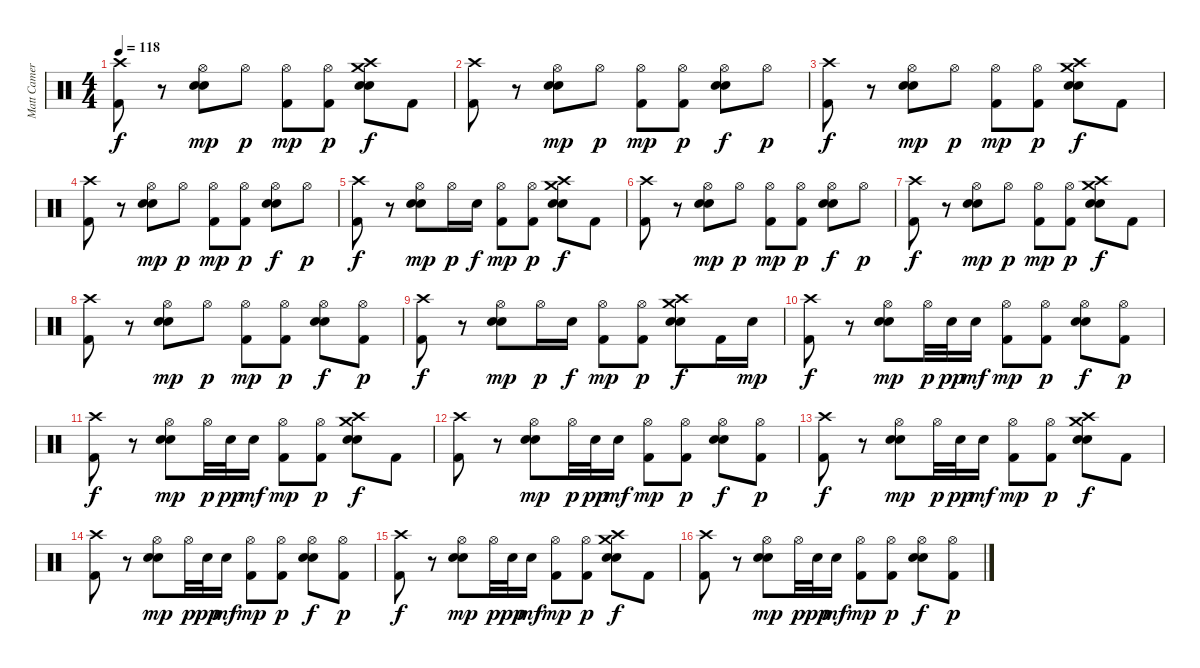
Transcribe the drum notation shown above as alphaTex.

\track ("Matt Cameron" "Matt Camer") {instrument percussion}
\staff
\articulation defaults
\ts (4 4)
\tempo 118
\clef neutral
\ks c
("Crash high (hit)" "Kick (hit) 2").8{dy f} r.8 ("Hi-Hat (open)" "Electric Snare (hit)" "Snare (hit) 2").8{dy mp} "Hi-Hat (open)".8{dy p} ("Hi-Hat (open)" "Kick (hit) 2").8{dy mp} ("Hi-Hat (open)" "Kick (hit) 2").8{dy p} ("Crash medium (hit)" "Crash high (hit)" "Electric Snare (hit)" "Snare (hit) 2").8{dy f} "Kick (hit) 2".8 |
("Crash high (hit)" "Kick (hit) 2").8 r.8 ("Hi-Hat (open)" "Electric Snare (hit)" "Snare (hit) 2").8{dy mp} "Hi-Hat (open)".8{dy p} ("Hi-Hat (open)" "Kick (hit) 2").8{dy mp} ("Hi-Hat (open)" "Kick (hit) 2").8{dy p} ("Hi-Hat (open)" "Electric Snare (hit)" "Snare (hit) 2").8{dy f} "Hi-Hat (open)".8{dy p} |
("Crash high (hit)" "Kick (hit) 2").8{dy f} r.8 ("Hi-Hat (open)" "Electric Snare (hit)" "Snare (hit) 2").8{dy mp} "Hi-Hat (open)".8{dy p} ("Hi-Hat (open)" "Kick (hit) 2").8{dy mp} ("Hi-Hat (open)" "Kick (hit) 2").8{dy p} ("Crash medium (hit)" "Crash high (hit)" "Electric Snare (hit)" "Snare (hit) 2").8{dy f} "Kick (hit) 2".8 |
("Crash high (hit)" "Kick (hit) 2").8 r.8 ("Hi-Hat (open)" "Electric Snare (hit)" "Snare (hit) 2").8{dy mp} "Hi-Hat (open)".8{dy p} ("Hi-Hat (open)" "Kick (hit) 2").8{dy mp} ("Hi-Hat (open)" "Kick (hit) 2").8{dy p} ("Hi-Hat (open)" "Electric Snare (hit)" "Snare (hit) 2").8{dy f} "Hi-Hat (open)".8{dy p} |
("Crash high (hit)" "Kick (hit) 2").8{dy f} r.8 ("Hi-Hat (open)" "Electric Snare (hit)" "Snare (hit) 2").8{dy mp} "Hi-Hat (open)".16{dy p} "Electric Snare (hit)".16{dy f} ("Hi-Hat (open)" "Kick (hit) 2").8{dy mp} ("Hi-Hat (open)" "Kick (hit) 2").8{dy p} ("Crash medium (hit)" "Crash high (hit)" "Electric Snare (hit)" "Snare (hit) 2").8{dy f} "Kick (hit) 2".8 |
("Crash high (hit)" "Kick (hit) 2").8 r.8 ("Hi-Hat (open)" "Electric Snare (hit)" "Snare (hit) 2").8{dy mp} "Hi-Hat (open)".8{dy p} ("Hi-Hat (open)" "Kick (hit) 2").8{dy mp} ("Hi-Hat (open)" "Kick (hit) 2").8{dy p} ("Hi-Hat (open)" "Electric Snare (hit)" "Snare (hit) 2").8{dy f} "Hi-Hat (open)".8{dy p} |
("Crash high (hit)" "Kick (hit) 2").8{dy f} r.8 ("Hi-Hat (open)" "Electric Snare (hit)" "Snare (hit) 2").8{dy mp} "Hi-Hat (open)".8{dy p} ("Hi-Hat (open)" "Kick (hit) 2").8{dy mp} ("Hi-Hat (open)" "Kick (hit) 2").8{dy p} ("Crash medium (hit)" "Crash high (hit)" "Electric Snare (hit)" "Snare (hit) 2").8{dy f} "Kick (hit) 2".8 |
("Crash high (hit)" "Kick (hit) 2").8 r.8 ("Hi-Hat (open)" "Electric Snare (hit)" "Snare (hit) 2").8{dy mp} "Hi-Hat (open)".8{dy p} ("Hi-Hat (open)" "Kick (hit) 2").8{dy mp} ("Hi-Hat (open)" "Kick (hit) 2").8{dy p} ("Hi-Hat (open)" "Electric Snare (hit)" "Snare (hit) 2").8{dy f} ("Hi-Hat (open)" "Kick (hit) 2").8{dy p} |
("Crash high (hit)" "Kick (hit) 2").8{dy f} r.8 ("Hi-Hat (open)" "Electric Snare (hit)" "Snare (hit) 2").8{dy mp} "Hi-Hat (open)".16{dy p} "Electric Snare (hit)".16{dy f} ("Hi-Hat (open)" "Kick (hit) 2").8{dy mp} ("Hi-Hat (open)" "Kick (hit) 2").8{dy p} ("Crash medium (hit)" "Crash high (hit)" "Electric Snare (hit)" "Snare (hit) 2").8{dy f} "Kick (hit) 2".16 "Snare (hit) 2".16{dy mp} |
("Crash high (hit)" "Kick (hit) 2").8{dy f} r.8 ("Hi-Hat (open)" "Electric Snare (hit)" "Snare (hit) 2").8{dy mp} "Hi-Hat (open)".32{dy p} "Snare (hit) 2".32{dy pp} "Snare (hit) 2".16{dy mf} ("Hi-Hat (open)" "Kick (hit) 2").8{dy mp} ("Hi-Hat (open)" "Kick (hit) 2").8{dy p} ("Hi-Hat (open)" "Electric Snare (hit)" "Snare (hit) 2").8{dy f} ("Hi-Hat (open)" "Kick (hit) 2").8{dy p} |
("Crash high (hit)" "Kick (hit) 2").8{dy f} r.8 ("Hi-Hat (open)" "Electric Snare (hit)" "Snare (hit) 2").8{dy mp} "Hi-Hat (open)".32{dy p} "Snare (hit) 2".32{dy pp} "Snare (hit) 2".16{dy mf} ("Hi-Hat (open)" "Kick (hit) 2").8{dy mp} ("Hi-Hat (open)" "Kick (hit) 2").8{dy p} ("Crash medium (hit)" "Crash high (hit)" "Electric Snare (hit)" "Snare (hit) 2").8{dy f} "Kick (hit) 2".8 |
("Crash high (hit)" "Kick (hit) 2").8 r.8 ("Hi-Hat (open)" "Electric Snare (hit)" "Snare (hit) 2").8{dy mp} "Hi-Hat (open)".32{dy p} "Snare (hit) 2".32{dy pp} "Snare (hit) 2".16{dy mf} ("Hi-Hat (open)" "Kick (hit) 2").8{dy mp} ("Hi-Hat (open)" "Kick (hit) 2").8{dy p} ("Hi-Hat (open)" "Electric Snare (hit)" "Snare (hit) 2").8{dy f} ("Hi-Hat (open)" "Kick (hit) 2").8{dy p} |
("Crash high (hit)" "Kick (hit) 2").8{dy f} r.8 ("Hi-Hat (open)" "Electric Snare (hit)" "Snare (hit) 2").8{dy mp} "Hi-Hat (open)".32{dy p} "Snare (hit) 2".32{dy pp} "Snare (hit) 2".16{dy mf} ("Hi-Hat (open)" "Kick (hit) 2").8{dy mp} ("Hi-Hat (open)" "Kick (hit) 2").8{dy p} ("Crash medium (hit)" "Crash high (hit)" "Electric Snare (hit)" "Snare (hit) 2").8{dy f} "Kick (hit) 2".8 |
("Crash high (hit)" "Kick (hit) 2").8 r.8 ("Hi-Hat (open)" "Electric Snare (hit)" "Snare (hit) 2").8{dy mp} "Hi-Hat (open)".32{dy p} "Snare (hit) 2".32{dy pp} "Snare (hit) 2".16{dy mf} ("Hi-Hat (open)" "Kick (hit) 2").8{dy mp} ("Hi-Hat (open)" "Kick (hit) 2").8{dy p} ("Hi-Hat (open)" "Electric Snare (hit)" "Snare (hit) 2").8{dy f} ("Hi-Hat (open)" "Kick (hit) 2").8{dy p} |
("Crash high (hit)" "Kick (hit) 2").8{dy f} r.8 ("Hi-Hat (open)" "Electric Snare (hit)" "Snare (hit) 2").8{dy mp} "Hi-Hat (open)".32{dy p} "Snare (hit) 2".32{dy pp} "Snare (hit) 2".16{dy mf} ("Hi-Hat (open)" "Kick (hit) 2").8{dy mp} ("Hi-Hat (open)" "Kick (hit) 2").8{dy p} ("Crash medium (hit)" "Crash high (hit)" "Electric Snare (hit)" "Snare (hit) 2").8{dy f} "Kick (hit) 2".8 |
("Crash high (hit)" "Kick (hit) 2").8 r.8 ("Hi-Hat (open)" "Electric Snare (hit)" "Snare (hit) 2").8{dy mp} "Hi-Hat (open)".32{dy p} "Snare (hit) 2".32{dy pp} "Snare (hit) 2".16{dy mf} ("Hi-Hat (open)" "Kick (hit) 2").8{dy mp} ("Hi-Hat (open)" "Kick (hit) 2").8{dy p} ("Hi-Hat (open)" "Electric Snare (hit)" "Snare (hit) 2").8{dy f} ("Hi-Hat (open)" "Kick (hit) 2").8{dy p}
